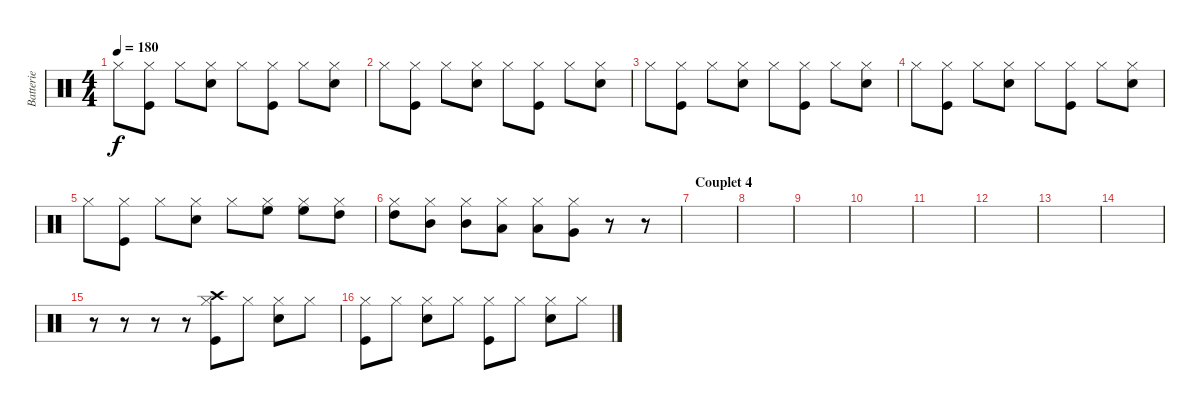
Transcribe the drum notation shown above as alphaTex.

\track ("Batterie" "Batterie") {instrument percussion}
\staff {score}
\articulation defaults
\ts (4 4)
\tempo 180
\clef neutral
\ks c "Hi-Hat (closed)".8{dy f}
("Hi-Hat (closed)" "Kick (hit)").8 "Hi-Hat (closed)".8 ("Hi-Hat (closed)" "Snare (hit) 2").8 "Hi-Hat (closed)".8 ("Hi-Hat (closed)" "Kick (hit)").8 "Hi-Hat (closed)".8 ("Hi-Hat (closed)" "Snare (hit) 2").8 |
"Hi-Hat (closed)".8 ("Hi-Hat (closed)" "Kick (hit)").8 "Hi-Hat (closed)".8 ("Hi-Hat (closed)" "Snare (hit) 2").8 "Hi-Hat (closed)".8 ("Hi-Hat (closed)" "Kick (hit)").8 "Hi-Hat (closed)".8 ("Hi-Hat (closed)" "Snare (hit) 2").8 |
"Hi-Hat (closed)".8 ("Hi-Hat (closed)" "Kick (hit)").8 "Hi-Hat (closed)".8 ("Hi-Hat (closed)" "Snare (hit) 2").8 "Hi-Hat (closed)".8 ("Hi-Hat (closed)" "Kick (hit)").8 "Hi-Hat (closed)".8 ("Hi-Hat (closed)" "Snare (hit) 2").8 |
"Hi-Hat (closed)".8 ("Hi-Hat (closed)" "Kick (hit)").8 "Hi-Hat (closed)".8 ("Hi-Hat (closed)" "Snare (hit) 2").8 "Hi-Hat (closed)".8 ("Hi-Hat (closed)" "Kick (hit)").8 "Hi-Hat (closed)".8 ("Hi-Hat (closed)" "Snare (hit) 2").8 |
"Hi-Hat (closed)".8 ("Hi-Hat (closed)" "Kick (hit)").8 "Hi-Hat (closed)".8 ("Hi-Hat (closed)" "Snare (hit) 2").8 "Hi-Hat (closed)".8 ("Hi-Hat (closed)" "High Floor Tom (hit)").8{balance 16} ("Hi-Hat (closed)" "High Floor Tom (hit)").8{balance 15} ("Hi-Hat (closed)" "High Tom (hit)").8{balance 14} |
("Hi-Hat (closed)" "High Tom (hit)").8{balance 12} ("Hi-Hat (closed)" "Mid Tom (hit)").8{balance 8} ("Hi-Hat (closed)" "Mid Tom (hit)").8{balance 5} ("Hi-Hat (closed)" "Low Tom (hit)").8{balance 3} ("Hi-Hat (closed)" "Low Tom (hit)").8{balance 1} ("Hi-Hat (closed)" "Very Low Tom (hit)").8{balance 0} r.8{balance 8} r.8 |
\section ("" "Couplet 4")
|
|
|
|
|
|
|
|
r.8 r.8 r.8 r.8 ("Crash high (hit)" "Hi-Hat (closed)" "Kick (hit)").8 "Hi-Hat (closed)".8 ("Hi-Hat (closed)" "Snare (hit) 2").8 "Hi-Hat (closed)".8 |
("Hi-Hat (closed)" "Kick (hit)").8 "Hi-Hat (closed)".8 ("Hi-Hat (closed)" "Snare (hit) 2").8 "Hi-Hat (closed)".8 ("Hi-Hat (closed)" "Kick (hit)").8 "Hi-Hat (closed)".8 ("Hi-Hat (closed)" "Snare (hit) 2").8 "Hi-Hat (closed)".8
